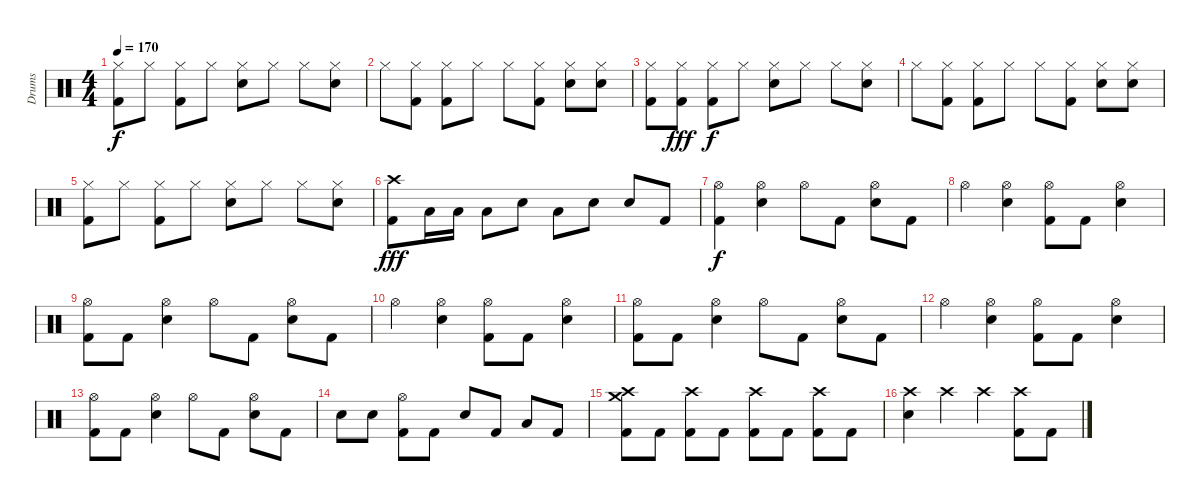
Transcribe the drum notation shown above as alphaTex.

\track ("Drums" "Drums") {instrument percussion}
\staff {score}
\articulation defaults
\ts (4 4)
\tempo 170
\clef neutral
\ks c
("Hi-Hat (closed)" "Kick (hit) 2").8{dy f} "Hi-Hat (closed)".8 ("Hi-Hat (closed)" "Kick (hit) 2").8 "Hi-Hat (closed)".8 ("Hi-Hat (closed)" "Electric Snare (hit)").8 "Hi-Hat (closed)".8 "Hi-Hat (closed)".8 ("Hi-Hat (closed)" "Electric Snare (hit)").8 |
"Hi-Hat (closed)".8 ("Hi-Hat (closed)" "Kick (hit) 2").8 ("Hi-Hat (closed)" "Kick (hit) 2").8 "Hi-Hat (closed)".8 "Hi-Hat (closed)".8 ("Hi-Hat (closed)" "Kick (hit) 2").8 ("Hi-Hat (closed)" "Electric Snare (hit)").8 ("Hi-Hat (closed)" "Electric Snare (hit)").8 |
("Hi-Hat (closed)" "Kick (hit) 2").8 ("Hi-Hat (closed)" "Kick (hit) 2").8{dy fff} ("Hi-Hat (closed)" "Kick (hit) 2").8{dy f} "Hi-Hat (closed)".8 ("Hi-Hat (closed)" "Electric Snare (hit)").8 "Hi-Hat (closed)".8 "Hi-Hat (closed)".8 ("Hi-Hat (closed)" "Electric Snare (hit)").8 |
"Hi-Hat (closed)".8 ("Hi-Hat (closed)" "Kick (hit) 2").8 ("Hi-Hat (closed)" "Kick (hit) 2").8 "Hi-Hat (closed)".8 "Hi-Hat (closed)".8 ("Hi-Hat (closed)" "Kick (hit) 2").8 ("Hi-Hat (closed)" "Electric Snare (hit)").8 ("Hi-Hat (closed)" "Electric Snare (hit)").8 |
("Hi-Hat (closed)" "Kick (hit) 2").8 "Hi-Hat (closed)".8 ("Hi-Hat (closed)" "Kick (hit) 2").8 "Hi-Hat (closed)".8 ("Hi-Hat (closed)" "Electric Snare (hit)").8 "Hi-Hat (closed)".8 "Hi-Hat (closed)".8 ("Hi-Hat (closed)" "Electric Snare (hit)").8 |
("Crash high (hit)" "Kick (hit) 2").8{dy fff} "Low Tom (hit)".16 "Low Tom (hit)".16 "Low Tom (hit)".8 "Electric Snare (hit)".8 "Low Tom (hit)".8 "Electric Snare (hit)".8 "Electric Snare (hit)".8 "Kick (hit) 2".8 |
("Hi-Hat (open)" "Kick (hit) 2").4{dy f} ("Hi-Hat (open)" "Electric Snare (hit)").4 "Hi-Hat (open)".8 "Kick (hit) 2".8 ("Hi-Hat (open)" "Electric Snare (hit)").8 "Kick (hit) 2".8 |
"Hi-Hat (open)".4 ("Hi-Hat (open)" "Electric Snare (hit)").4 ("Hi-Hat (open)" "Kick (hit) 2").8 "Kick (hit) 2".8 ("Hi-Hat (open)" "Electric Snare (hit)").4 |
("Hi-Hat (open)" "Kick (hit) 2").8 "Kick (hit) 2".8 ("Hi-Hat (open)" "Electric Snare (hit)").4 "Hi-Hat (open)".8 "Kick (hit) 2".8 ("Hi-Hat (open)" "Electric Snare (hit)").8 "Kick (hit) 2".8 |
"Hi-Hat (open)".4 ("Hi-Hat (open)" "Electric Snare (hit)").4 ("Hi-Hat (open)" "Kick (hit) 2").8 "Kick (hit) 2".8 ("Hi-Hat (open)" "Electric Snare (hit)").4 |
("Hi-Hat (open)" "Kick (hit) 2").8 "Kick (hit) 2".8 ("Hi-Hat (open)" "Electric Snare (hit)").4 "Hi-Hat (open)".8 "Kick (hit) 2".8 ("Hi-Hat (open)" "Electric Snare (hit)").8 "Kick (hit) 2".8 |
"Hi-Hat (open)".4 ("Hi-Hat (open)" "Electric Snare (hit)").4 ("Hi-Hat (open)" "Kick (hit) 2").8 "Kick (hit) 2".8 ("Hi-Hat (open)" "Electric Snare (hit)").4 |
("Hi-Hat (open)" "Kick (hit) 2").8 "Kick (hit) 2".8 ("Hi-Hat (open)" "Electric Snare (hit)").4 "Hi-Hat (open)".8 "Kick (hit) 2".8 ("Hi-Hat (open)" "Electric Snare (hit)").8 "Kick (hit) 2".8 |
"Electric Snare (hit)".8 "Electric Snare (hit)".8 ("Hi-Hat (open)" "Kick (hit) 2").8 "Kick (hit) 2".8 "Electric Snare (hit)".8 "Kick (hit) 2".8 "Low Tom (hit)".8 "Kick (hit) 2".8 |
("Crash high (hit)" "Crash medium (hit)" "Kick (hit) 2").8 "Kick (hit) 2".8 ("Crash high (hit)" "Kick (hit) 2").8 "Kick (hit) 2".8 ("Crash high (hit)" "Kick (hit) 2").8 "Kick (hit) 2".8 ("Crash high (hit)" "Kick (hit) 2").8 "Kick (hit) 2".8 |
("Crash high (hit)" "Electric Snare (hit)").4 "Crash high (hit)".4 "Crash high (hit)".4 ("Crash high (hit)" "Kick (hit) 2").8 "Kick (hit) 2".8
